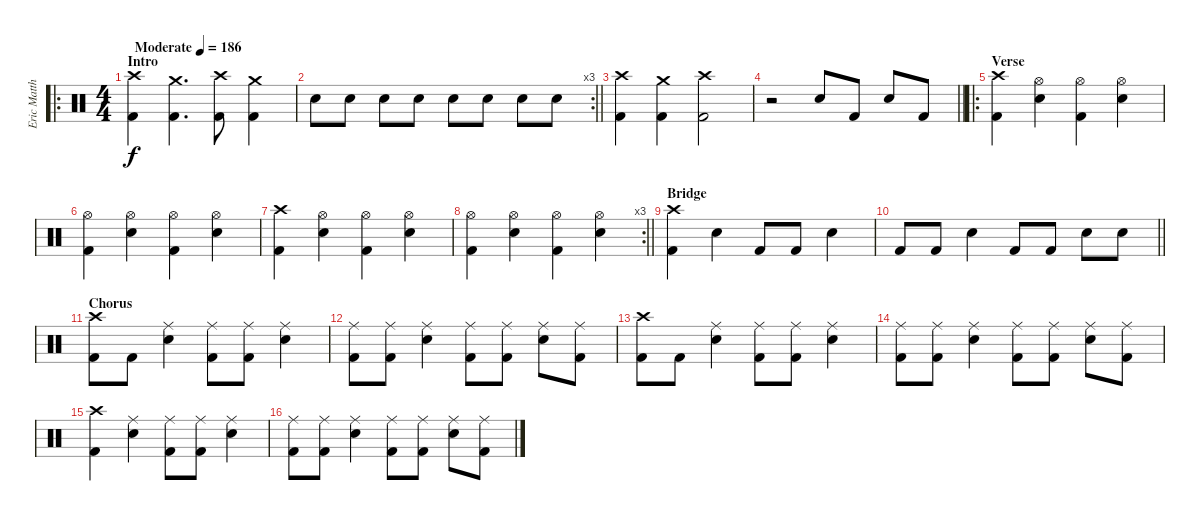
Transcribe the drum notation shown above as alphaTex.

\track ("Eric Matthews" "Eric Matth") {instrument percussion}
\staff {score}
\articulation defaults
\ro
\ts (4 4)
\section ("" "Intro")
\tempo (186 "Moderate")
\clef neutral
\ks c
("Crash high (hit)" "Kick (hit) 2").4{dy f} ("Crash medium (hit)" "Kick (hit) 2").4{d} ("Crash high (hit)" "Kick (hit) 2").8 ("Crash medium (hit)" "Kick (hit) 2").4 |
\rc 3
\barLineRight lightlight "Electric Snare (hit)".8 "Electric Snare (hit)".8 "Electric Snare (hit)".8 "Electric Snare (hit)".8 "Electric Snare (hit)".8 "Electric Snare (hit)".8 "Electric Snare (hit)".8 "Electric Snare (hit)".8
|
("Crash high (hit)" "Kick (hit) 2").4 ("Crash medium (hit)" "Kick (hit) 2").4 ("Crash high (hit)" "Kick (hit) 2").2 |
\barLineRight lightlight
r.2 "Electric Snare (hit)".8 "Kick (hit) 2".8 "Electric Snare (hit)".8 "Kick (hit) 2".8 |
\ro
\section ("" "Verse")
("Crash high (hit)" "Kick (hit) 2").4 ("Hi-Hat (open)" "Electric Snare (hit)").4 ("Hi-Hat (open)" "Kick (hit) 2").4 ("Hi-Hat (open)" "Electric Snare (hit)").4 |
("Hi-Hat (open)" "Kick (hit) 2").4 ("Hi-Hat (open)" "Electric Snare (hit)").4 ("Hi-Hat (open)" "Kick (hit) 2").4 ("Hi-Hat (open)" "Electric Snare (hit)").4 |
("Crash high (hit)" "Kick (hit) 2").4 ("Hi-Hat (open)" "Electric Snare (hit)").4 ("Hi-Hat (open)" "Kick (hit) 2").4 ("Hi-Hat (open)" "Electric Snare (hit)").4 |
\rc 3
\barLineRight lightlight
("Hi-Hat (open)" "Kick (hit) 2").4 ("Hi-Hat (open)" "Electric Snare (hit)").4 ("Hi-Hat (open)" "Kick (hit) 2").4 ("Hi-Hat (open)" "Electric Snare (hit)").4 |
\section ("" "Bridge")
("Crash high (hit)" "Kick (hit) 2").4 "Electric Snare (hit)".4 "Kick (hit) 2".8 "Kick (hit) 2".8 "Electric Snare (hit)".4 |
\barLineRight lightlight "Kick (hit) 2".8 "Kick (hit) 2".8 "Electric Snare (hit)".4 "Kick (hit) 2".8 "Kick (hit) 2".8 "Electric Snare (hit)".8 "Electric Snare (hit)".8
|
\section ("" "Chorus")
("Crash high (hit)" "Kick (hit) 2").8 "Kick (hit) 2".8 ("Ride (middle)" "Electric Snare (hit)").4 ("Ride (middle)" "Kick (hit) 2").8 ("Ride (middle)" "Kick (hit) 2").8 ("Ride (middle)" "Electric Snare (hit)").4 |
("Ride (middle)" "Kick (hit) 2").8 ("Ride (middle)" "Kick (hit) 2").8 ("Ride (middle)" "Electric Snare (hit)").4 ("Ride (middle)" "Kick (hit) 2").8 ("Ride (middle)" "Kick (hit) 2").8 ("Ride (middle)" "Electric Snare (hit)").8 ("Ride (middle)" "Kick (hit) 2").8 |
("Crash high (hit)" "Kick (hit) 2").8 "Kick (hit) 2".8 ("Ride (middle)" "Electric Snare (hit)").4 ("Ride (middle)" "Kick (hit) 2").8 ("Ride (middle)" "Kick (hit) 2").8 ("Ride (middle)" "Electric Snare (hit)").4 |
("Ride (middle)" "Kick (hit) 2").8 ("Ride (middle)" "Kick (hit) 2").8 ("Ride (middle)" "Electric Snare (hit)").4 ("Ride (middle)" "Kick (hit) 2").8 ("Ride (middle)" "Kick (hit) 2").8 ("Ride (middle)" "Electric Snare (hit)").8 ("Ride (middle)" "Kick (hit) 2").8 |
("Crash high (hit)" "Kick (hit) 2").4 ("Ride (middle)" "Electric Snare (hit)").4 ("Ride (middle)" "Kick (hit) 2").8 ("Ride (middle)" "Kick (hit) 2").8 ("Ride (middle)" "Electric Snare (hit)").4 |
("Ride (middle)" "Kick (hit) 2").8 ("Ride (middle)" "Kick (hit) 2").8 ("Ride (middle)" "Electric Snare (hit)").4 ("Ride (middle)" "Kick (hit) 2").8 ("Ride (middle)" "Kick (hit) 2").8 ("Ride (middle)" "Electric Snare (hit)").8 ("Ride (middle)" "Kick (hit) 2").8
